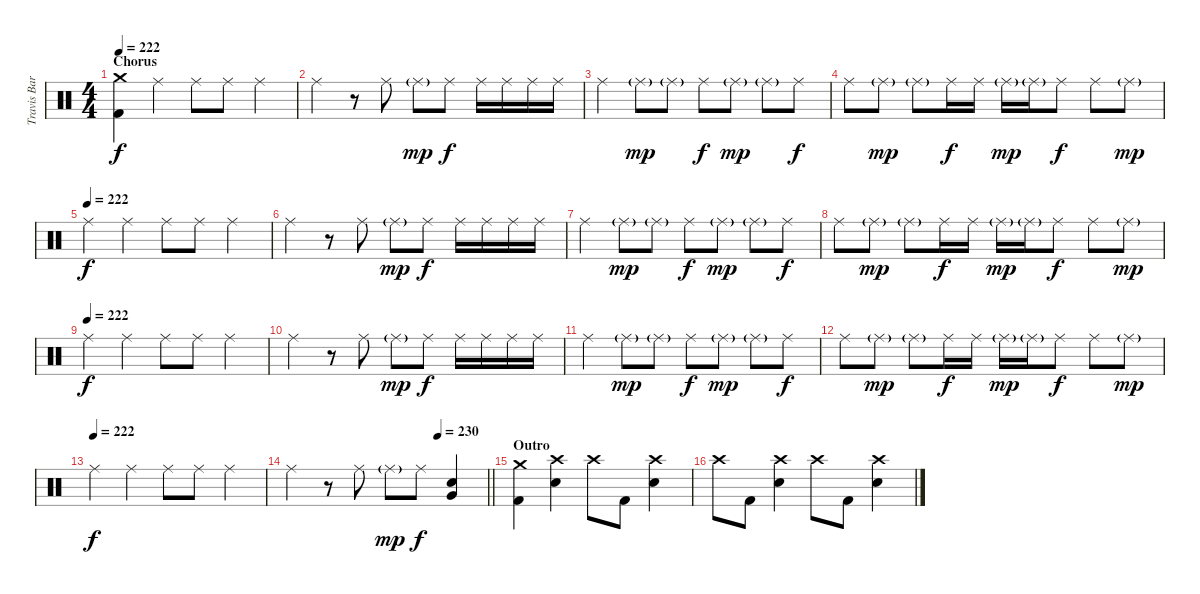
\track ("Travis Barker - Drums" "Travis Bar") {instrument percussion}
\staff {score}
\articulation defaults
\ts (4 4)
\section ("" "Chorus")
\tempo 222
\clef neutral
\ks c
("Crash medium (hit)" "Kick (hit) 2").4{dy f} "Ride (middle)".4 "Ride (middle)".8 "Ride (middle)".8 "Ride (middle)".4 |
"Ride (middle)".4 r.8 "Ride (middle)".8 "Ride (middle)"{g}.8{dy mp} "Ride (middle)".8{dy f} "Ride (middle)".16 "Ride (middle)".16 "Ride (middle)".16 "Ride (middle)".16 |
"Ride (middle)".4 "Ride (middle)"{g}.8{dy mp} "Ride (middle)"{g}.8 "Ride (middle)".8{dy f} "Ride (middle)"{g}.8{dy mp} "Ride (middle)"{g}.8 "Ride (middle)".8{dy f} |
"Ride (middle)".8 "Ride (middle)"{g}.8{dy mp} "Ride (middle)"{g}.8 "Ride (middle)".16{dy f} "Ride (middle)".16 "Ride (middle)"{g}.16{dy mp} "Ride (middle)"{g}.16 "Ride (middle)".8{dy f} "Ride (middle)".8 "Ride (middle)"{g}.8{dy mp} |
\tempo (222)
"Ride (middle)".4{dy f} "Ride (middle)".4 "Ride (middle)".8 "Ride (middle)".8 "Ride (middle)".4 |
"Ride (middle)".4 r.8 "Ride (middle)".8 "Ride (middle)"{g}.8{dy mp} "Ride (middle)".8{dy f} "Ride (middle)".16 "Ride (middle)".16 "Ride (middle)".16 "Ride (middle)".16 |
"Ride (middle)".4 "Ride (middle)"{g}.8{dy mp} "Ride (middle)"{g}.8 "Ride (middle)".8{dy f} "Ride (middle)"{g}.8{dy mp} "Ride (middle)"{g}.8 "Ride (middle)".8{dy f} |
"Ride (middle)".8 "Ride (middle)"{g}.8{dy mp} "Ride (middle)"{g}.8 "Ride (middle)".16{dy f} "Ride (middle)".16 "Ride (middle)"{g}.16{dy mp} "Ride (middle)"{g}.16 "Ride (middle)".8{dy f} "Ride (middle)".8 "Ride (middle)"{g}.8{dy mp} |
\tempo (222)
"Ride (middle)".4{dy f} "Ride (middle)".4 "Ride (middle)".8 "Ride (middle)".8 "Ride (middle)".4 |
"Ride (middle)".4 r.8 "Ride (middle)".8 "Ride (middle)"{g}.8{dy mp} "Ride (middle)".8{dy f} "Ride (middle)".16 "Ride (middle)".16 "Ride (middle)".16 "Ride (middle)".16 |
"Ride (middle)".4 "Ride (middle)"{g}.8{dy mp} "Ride (middle)"{g}.8 "Ride (middle)".8{dy f} "Ride (middle)"{g}.8{dy mp} "Ride (middle)"{g}.8 "Ride (middle)".8{dy f} |
"Ride (middle)".8 "Ride (middle)"{g}.8{dy mp} "Ride (middle)"{g}.8 "Ride (middle)".16{dy f} "Ride (middle)".16 "Ride (middle)"{g}.16{dy mp} "Ride (middle)"{g}.16 "Ride (middle)".8{dy f} "Ride (middle)".8 "Ride (middle)"{g}.8{dy mp} |
\tempo (222)
"Ride (middle)".4{dy f} "Ride (middle)".4 "Ride (middle)".8 "Ride (middle)".8 "Ride (middle)".4 |
\tempo (230 0.75)
\barLineRight lightlight "Ride (middle)".4
r.8 "Ride (middle)".8 "Ride (middle)"{g}.8{dy mp} "Ride (middle)".8{dy f} ("Very Low Tom (hit)" "Electric Snare (hit)").4 |
\section ("" "Outro")
("Crash medium (hit)" "Kick (hit) 2").4 ("Crash high (hit)" "Electric Snare (hit)").4 "Crash high (hit)".8 "Kick (hit) 2".8 ("Crash high (hit)" "Electric Snare (hit)").4 |
"Crash high (hit)".8 "Kick (hit) 2".8 ("Crash high (hit)" "Electric Snare (hit)").4 "Crash high (hit)".8 "Kick (hit) 2".8 ("Crash high (hit)" "Electric Snare (hit)").4
